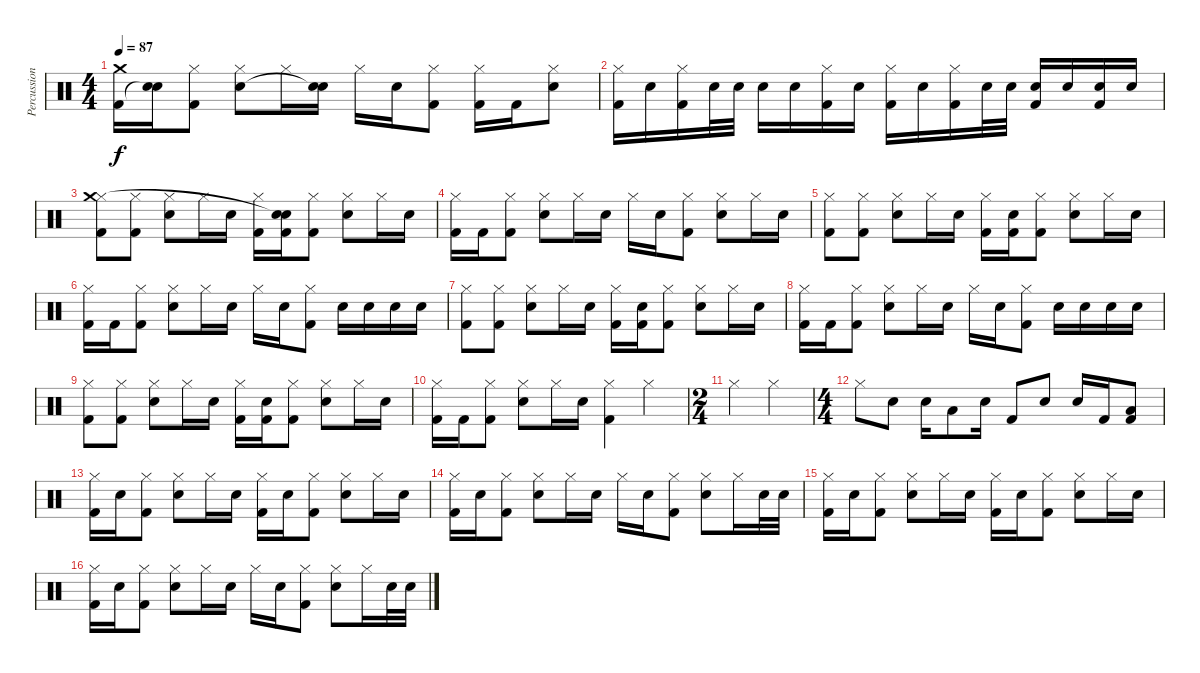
\track ("Percussion" "Percussion") {instrument percussion}
\staff {score}
\articulation defaults
\ts (4 4)
\tempo 87
\clef neutral
\ks c
("Kick (hit) 2" "Crash medium (hit)").16{dy f} ("Snare (hit)"{t} "Electric Snare (hit)").16 ("Hi-Hat (closed)" "Kick (hit) 2").8 ("Hi-Hat (closed)" "Electric Snare (hit)").8 "Hi-Hat (closed)".16 ("Electric Snare (hit)" "Snare (hit)"{t}).16 "Hi-Hat (closed)".16 "Electric Snare (hit)".16 ("Hi-Hat (closed)" "Kick (hit) 2").8 ("Hi-Hat (closed)" "Kick (hit) 2").16 "Kick (hit) 2".16 ("Hi-Hat (closed)" "Electric Snare (hit)").8 |
("Hi-Hat (closed)" "Kick (hit) 2").16 "Electric Snare (hit)".16 ("Hi-Hat (closed)" "Kick (hit) 2").16 "Electric Snare (hit)".32 "Electric Snare (hit)".32 "Electric Snare (hit)".16 "Electric Snare (hit)".16 ("Hi-Hat (closed)" "Kick (hit) 2").16 "Electric Snare (hit)".16 ("Hi-Hat (closed)" "Kick (hit) 2").16 "Electric Snare (hit)".16 ("Hi-Hat (closed)" "Kick (hit) 2").16 "Electric Snare (hit)".32 "Electric Snare (hit)".32 ("Electric Snare (hit)" "Kick (hit) 2").16 "Electric Snare (hit)".16 ("Electric Snare (hit)" "Kick (hit) 2").16 "Electric Snare (hit)".16 |
("Hi-Hat (closed)" "Kick (hit) 2" "Crash medium (hit)").8 ("Hi-Hat (closed)" "Kick (hit) 2").8 ("Hi-Hat (closed)" "Electric Snare (hit)").8 "Hi-Hat (closed)".16 "Electric Snare (hit)".16 ("Hi-Hat (closed)" "Kick (hit) 2").16 ("Electric Snare (hit)" "Kick (hit) 2" "Snare (hit)"{t}).16 ("Hi-Hat (closed)" "Kick (hit) 2").8 ("Hi-Hat (closed)" "Electric Snare (hit)").8 "Hi-Hat (closed)".16 "Electric Snare (hit)".16 |
("Hi-Hat (closed)" "Kick (hit) 2").16 "Kick (hit) 2".16 ("Hi-Hat (closed)" "Kick (hit) 2").8 ("Hi-Hat (closed)" "Electric Snare (hit)").8 "Hi-Hat (closed)".16 "Electric Snare (hit)".16 "Hi-Hat (closed)".16 "Electric Snare (hit)".16 ("Hi-Hat (closed)" "Kick (hit) 2").8 ("Hi-Hat (closed)" "Electric Snare (hit)").8 "Hi-Hat (closed)".16 "Electric Snare (hit)".16 |
("Hi-Hat (closed)" "Kick (hit) 2").8 ("Hi-Hat (closed)" "Kick (hit) 2").8 ("Hi-Hat (closed)" "Electric Snare (hit)").8 "Hi-Hat (closed)".16 "Electric Snare (hit)".16 ("Hi-Hat (closed)" "Kick (hit) 2").16 ("Electric Snare (hit)" "Kick (hit) 2").16 ("Hi-Hat (closed)" "Kick (hit) 2").8 ("Hi-Hat (closed)" "Electric Snare (hit)").8 "Hi-Hat (closed)".16 "Electric Snare (hit)".16 |
("Hi-Hat (closed)" "Kick (hit) 2").16 "Kick (hit) 2".16 ("Hi-Hat (closed)" "Kick (hit) 2").8 ("Hi-Hat (closed)" "Electric Snare (hit)").8 "Hi-Hat (closed)".16 "Electric Snare (hit)".16 "Hi-Hat (closed)".16 "Electric Snare (hit)".16 ("Hi-Hat (closed)" "Kick (hit) 2").8 "Electric Snare (hit)".16 "Electric Snare (hit)".16 "Electric Snare (hit)".16 "Electric Snare (hit)".16 |
("Hi-Hat (closed)" "Kick (hit) 2").8 ("Hi-Hat (closed)" "Kick (hit) 2").8 ("Hi-Hat (closed)" "Electric Snare (hit)").8 "Hi-Hat (closed)".16 "Electric Snare (hit)".16 ("Hi-Hat (closed)" "Kick (hit) 2").16 ("Electric Snare (hit)" "Kick (hit) 2").16 ("Hi-Hat (closed)" "Kick (hit) 2").8 ("Hi-Hat (closed)" "Electric Snare (hit)").8 "Hi-Hat (closed)".16 "Electric Snare (hit)".16 |
("Hi-Hat (closed)" "Kick (hit) 2").16 "Kick (hit) 2".16 ("Hi-Hat (closed)" "Kick (hit) 2").8 ("Hi-Hat (closed)" "Electric Snare (hit)").8 "Hi-Hat (closed)".16 "Electric Snare (hit)".16 "Hi-Hat (closed)".16 "Electric Snare (hit)".16 ("Hi-Hat (closed)" "Kick (hit) 2").8 "Electric Snare (hit)".16 "Electric Snare (hit)".16 "Electric Snare (hit)".16 "Electric Snare (hit)".16 |
("Hi-Hat (closed)" "Kick (hit) 2").8 ("Hi-Hat (closed)" "Kick (hit) 2").8 ("Hi-Hat (closed)" "Electric Snare (hit)").8 "Hi-Hat (closed)".16 "Electric Snare (hit)".16 ("Hi-Hat (closed)" "Kick (hit) 2").16 ("Electric Snare (hit)" "Kick (hit) 2").16 ("Hi-Hat (closed)" "Kick (hit) 2").8 ("Hi-Hat (closed)" "Electric Snare (hit)").8 "Hi-Hat (closed)".16 "Electric Snare (hit)".16 |
("Hi-Hat (closed)" "Kick (hit) 2").16 "Kick (hit) 2".16 ("Hi-Hat (closed)" "Kick (hit) 2").8 ("Hi-Hat (closed)" "Electric Snare (hit)").8 "Hi-Hat (closed)".16 "Electric Snare (hit)".16 ("Hi-Hat (closed)" "Kick (hit) 2").4 "Hi-Hat (closed)".4 |
\ts (2 4)
"Hi-Hat (closed)".4 "Hi-Hat (closed)".4 |
\ts (4 4)
"Hi-Hat (closed)".8 "Electric Snare (hit)".8 "Electric Snare (hit)".16 "Low Floor Tom (hit)".8 "Electric Snare (hit)".16 "Kick (hit) 2".8 "Electric Snare (hit)".8 "Electric Snare (hit)".16 "Kick (hit) 2".16 ("Low Tom (hit)" "Kick (hit) 2").8 |
("Hi-Hat (closed)" "Kick (hit) 2").16 "Electric Snare (hit)".16 ("Hi-Hat (closed)" "Kick (hit) 2").8 ("Hi-Hat (closed)" "Electric Snare (hit)").8 "Hi-Hat (closed)".16 "Electric Snare (hit)".16 ("Hi-Hat (closed)" "Kick (hit) 2").16 "Electric Snare (hit)".16 ("Hi-Hat (closed)" "Kick (hit) 2").8 ("Hi-Hat (closed)" "Electric Snare (hit)").8 "Hi-Hat (closed)".16 "Electric Snare (hit)".16 |
("Hi-Hat (closed)" "Kick (hit) 2").16 "Electric Snare (hit)".16 ("Hi-Hat (closed)" "Kick (hit) 2").8 ("Hi-Hat (closed)" "Electric Snare (hit)").8 "Hi-Hat (closed)".16 "Electric Snare (hit)".16 "Hi-Hat (closed)".16 "Electric Snare (hit)".16 ("Hi-Hat (closed)" "Kick (hit) 2").8 ("Hi-Hat (closed)" "Electric Snare (hit)").8 "Hi-Hat (closed)".16 "Electric Snare (hit)".32 "Electric Snare (hit)".32 |
("Hi-Hat (closed)" "Kick (hit) 2").16 "Electric Snare (hit)".16 ("Hi-Hat (closed)" "Kick (hit) 2").8 ("Hi-Hat (closed)" "Electric Snare (hit)").8 "Hi-Hat (closed)".16 "Electric Snare (hit)".16 ("Hi-Hat (closed)" "Kick (hit) 2").16 "Electric Snare (hit)".16 ("Hi-Hat (closed)" "Kick (hit) 2").8 ("Hi-Hat (closed)" "Electric Snare (hit)").8 "Hi-Hat (closed)".16 "Electric Snare (hit)".16 |
("Hi-Hat (closed)" "Kick (hit) 2").16 "Electric Snare (hit)".16 ("Hi-Hat (closed)" "Kick (hit) 2").8 ("Hi-Hat (closed)" "Electric Snare (hit)").8 "Hi-Hat (closed)".16 "Electric Snare (hit)".16 "Hi-Hat (closed)".16 "Electric Snare (hit)".16 ("Hi-Hat (closed)" "Kick (hit) 2").8 ("Hi-Hat (closed)" "Electric Snare (hit)").8 "Hi-Hat (closed)".16 "Electric Snare (hit)".32 "Electric Snare (hit)".32
